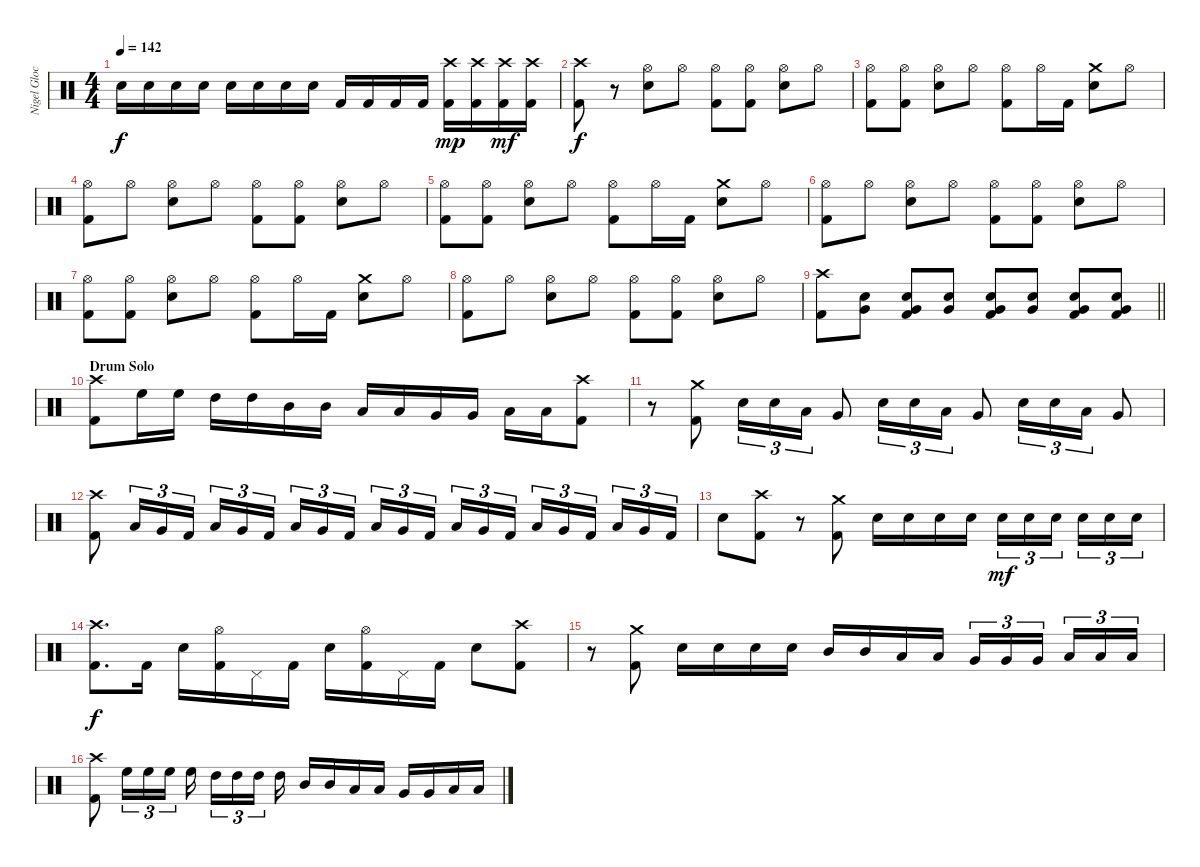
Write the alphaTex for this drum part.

\track ("Nigel Glockler (Drums)" "Nigel Gloc") {instrument percussion}
\staff {score}
\articulation defaults
\ts (4 4)
\tempo 142
\clef neutral
\ks c "Snare (hit) 2".16{dy f} "Snare (hit) 2".16 "Snare (hit) 2".16 "Snare (hit) 2".16 "Snare (hit) 2".16 "Snare (hit) 2".16 "Snare (hit) 2".16 "Snare (hit) 2".16 "Kick (hit) 2".16 "Kick (hit) 2".16 "Kick (hit) 2".16 "Kick (hit) 2".16
("Crash high (hit)" "Kick (hit) 2").16{dy mp} ("Crash high (hit)" "Kick (hit) 2").16 ("Crash high (hit)" "Kick (hit) 2").16{dy mf} ("Crash high (hit)" "Kick (hit) 2").16 |
("Crash high (hit)" "Kick (hit) 2").8{dy f} r.8 ("Hi-Hat (open)" "Snare (hit) 2").8 "Hi-Hat (open)".8 ("Hi-Hat (open)" "Kick (hit) 2").8 ("Hi-Hat (open)" "Kick (hit) 2").8 ("Hi-Hat (open)" "Snare (hit) 2").8 "Hi-Hat (open)".8 |
("Hi-Hat (open)" "Kick (hit) 2").8 ("Hi-Hat (open)" "Kick (hit) 2").8 ("Hi-Hat (open)" "Snare (hit) 2").8 "Hi-Hat (open)".8 ("Hi-Hat (open)" "Kick (hit) 2").8 "Hi-Hat (open)".16 "Kick (hit) 2".16 ("Crash medium (hit)" "Snare (hit) 2").8 "Hi-Hat (open)".8 |
("Hi-Hat (open)" "Kick (hit) 2").8 "Hi-Hat (open)".8 ("Hi-Hat (open)" "Snare (hit) 2").8 "Hi-Hat (open)".8 ("Hi-Hat (open)" "Kick (hit) 2").8 ("Hi-Hat (open)" "Kick (hit) 2").8 ("Hi-Hat (open)" "Snare (hit) 2").8 "Hi-Hat (open)".8 |
("Hi-Hat (open)" "Kick (hit) 2").8 ("Hi-Hat (open)" "Kick (hit) 2").8 ("Hi-Hat (open)" "Snare (hit) 2").8 "Hi-Hat (open)".8 ("Hi-Hat (open)" "Kick (hit) 2").8 "Hi-Hat (open)".16 "Kick (hit) 2".16 ("Crash medium (hit)" "Snare (hit) 2").8 "Hi-Hat (open)".8 |
("Hi-Hat (open)" "Kick (hit) 2").8 "Hi-Hat (open)".8 ("Hi-Hat (open)" "Snare (hit) 2").8 "Hi-Hat (open)".8 ("Hi-Hat (open)" "Kick (hit) 2").8 ("Hi-Hat (open)" "Kick (hit) 2").8 ("Hi-Hat (open)" "Snare (hit) 2").8 "Hi-Hat (open)".8 |
("Hi-Hat (open)" "Kick (hit) 2").8 ("Hi-Hat (open)" "Kick (hit) 2").8 ("Hi-Hat (open)" "Snare (hit) 2").8 "Hi-Hat (open)".8 ("Hi-Hat (open)" "Kick (hit) 2").8 "Hi-Hat (open)".16 "Kick (hit) 2".16 ("Crash medium (hit)" "Snare (hit) 2").8 "Hi-Hat (open)".8 |
("Hi-Hat (open)" "Kick (hit) 2").8 "Hi-Hat (open)".8 ("Hi-Hat (open)" "Snare (hit) 2").8 "Hi-Hat (open)".8 ("Hi-Hat (open)" "Kick (hit) 2").8 ("Hi-Hat (open)" "Kick (hit) 2").8 ("Hi-Hat (open)" "Snare (hit) 2").8 "Hi-Hat (open)".8 |
\barLineRight lightlight
("Crash high (hit)" "Kick (hit) 2").8 ("Snare (hit) 2" "Very Low Tom (hit)").8 ("Snare (hit) 2" "Very Low Tom (hit)" "Kick (hit) 2").8 ("Snare (hit) 2" "Very Low Tom (hit)").8 ("Snare (hit) 2" "Very Low Tom (hit)" "Kick (hit) 2").8 ("Snare (hit) 2" "Very Low Tom (hit)").8 ("Snare (hit) 2" "Very Low Tom (hit)" "Kick (hit) 2").8 ("Snare (hit) 2" "Very Low Tom (hit)" "Kick (hit) 2").8 |
\section ("" "Drum Solo")
("Crash high (hit)" "Kick (hit) 2").8 "High Floor Tom (hit)".16 "High Floor Tom (hit)".16 "High Tom (hit)".16 "High Tom (hit)".16 "Mid Tom (hit)".16 "Mid Tom (hit)".16 "Low Tom (hit)".16 "Low Tom (hit)".16 "Very Low Tom (hit)".16 "Very Low Tom (hit)".16 "Low Floor Tom (hit)".16 "Low Floor Tom (hit)".16 ("Crash high (hit)" "Kick (hit) 2").8 |
r.8 ("Crash medium (hit)" "Kick (hit) 2").8 "Snare (hit) 2".16{tu (3 2)} "Snare (hit) 2".16{tu (3 2)} "Low Tom (hit)".16{tu (3 2)} "Very Low Tom (hit)".8 "Snare (hit) 2".16{tu (3 2)} "Snare (hit) 2".16{tu (3 2)} "Low Tom (hit)".16{tu (3 2)} "Very Low Tom (hit)".8 "Snare (hit) 2".16{tu (3 2)} "Snare (hit) 2".16{tu (3 2)} "Low Tom (hit)".16{tu (3 2)} "Very Low Tom (hit)".8 |
("Crash high (hit)" "Kick (hit) 2").8 "Low Tom (hit)".16{tu (3 2)} "Very Low Tom (hit)".16{tu (3 2)} "Kick (hit) 2".16{tu (3 2)} "Low Tom (hit)".16{tu (3 2)} "Very Low Tom (hit)".16{tu (3 2)} "Kick (hit) 2".16{tu (3 2) beam splitsecondary} "Low Tom (hit)".16{tu (3 2)} "Very Low Tom (hit)".16{tu (3 2)} "Kick (hit) 2".16{tu (3 2)} "Low Tom (hit)".16{tu (3 2)} "Very Low Tom (hit)".16{tu (3 2)} "Kick (hit) 2".16{tu (3 2) beam splitsecondary} "Low Tom (hit)".16{tu (3 2)} "Very Low Tom (hit)".16{tu (3 2)} "Kick (hit) 2".16{tu (3 2)} "Low Tom (hit)".16{tu (3 2)} "Very Low Tom (hit)".16{tu (3 2)} "Kick (hit) 2".16{tu (3 2) beam splitsecondary} "Low Tom (hit)".16{tu (3 2)} "Very Low Tom (hit)".16{tu (3 2)} "Kick (hit) 2".16{tu (3 2)} |
"Snare (hit) 2".8 ("Crash high (hit)" "Kick (hit) 2").8 r.8 ("Crash medium (hit)" "Kick (hit) 2").8 "Snare (hit) 2".16 "Snare (hit) 2".16 "Snare (hit) 2".16 "Snare (hit) 2".16 "Snare (hit) 2".16{tu (3 2) dy mf} "Snare (hit) 2".16{tu (3 2)} "Snare (hit) 2".16{tu (3 2) beam splitsecondary} "Snare (hit) 2".16{tu (3 2)} "Snare (hit) 2".16{tu (3 2)} "Snare (hit) 2".16{tu (3 2)} |
("Crash high (hit)" "Kick (hit) 2").8{d dy f} "Kick (hit) 2".16 "Snare (hit) 2".16 ("Hi-Hat (open)" "Kick (hit) 2").16 "Pedal Hi-Hat (hit)".16 "Kick (hit) 2".16 "Snare (hit) 2".16 ("Hi-Hat (open)" "Kick (hit) 2").16 "Pedal Hi-Hat (hit)".16 "Kick (hit) 2".16 "Snare (hit) 2".8 ("Crash high (hit)" "Kick (hit) 2").8 |
r.8 ("Crash medium (hit)" "Kick (hit) 2").8 "Snare (hit) 2".16 "Snare (hit) 2".16 "Snare (hit) 2".16 "Snare (hit) 2".16 "Mid Tom (hit)".16 "Mid Tom (hit)".16 "Low Tom (hit)".16 "Low Tom (hit)".16 "Very Low Tom (hit)".16{tu (3 2)} "Very Low Tom (hit)".16{tu (3 2)} "Very Low Tom (hit)".16{tu (3 2) beam splitsecondary} "Low Floor Tom (hit)".16{tu (3 2)} "Low Floor Tom (hit)".16{tu (3 2)} "Low Floor Tom (hit)".16{tu (3 2)} |
("Crash high (hit)" "Kick (hit) 2").8 "High Floor Tom (hit)".16{tu (3 2)} "High Floor Tom (hit)".16{tu (3 2)} "High Floor Tom (hit)".16{tu (3 2)} "High Floor Tom (hit)".16{beam splitsecondary} "High Tom (hit)".16{tu (3 2)} "High Tom (hit)".16{tu (3 2)} "High Tom (hit)".16{tu (3 2) beam splitsecondary} "High Tom (hit)".16 "Mid Tom (hit)".16 "Mid Tom (hit)".16 "Low Tom (hit)".16 "Low Tom (hit)".16 "Very Low Tom (hit)".16 "Very Low Tom (hit)".16 "Low Floor Tom (hit)".16 "Low Floor Tom (hit)".16
